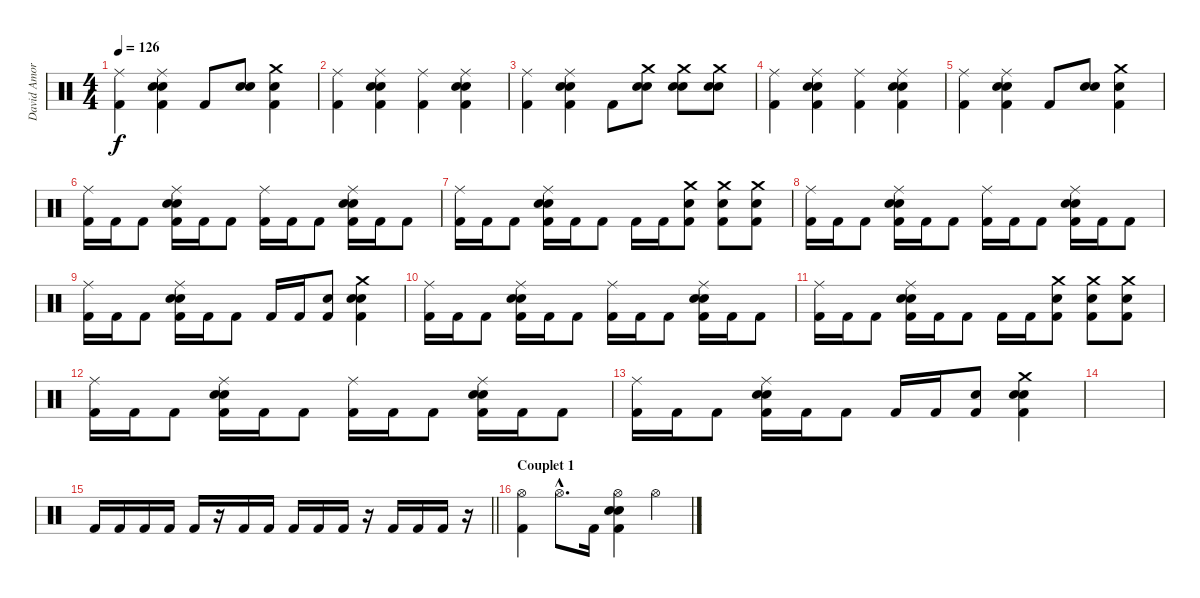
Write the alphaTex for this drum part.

\track ("David Amore" "David Amor") {instrument percussion}
\staff {score}
\articulation defaults
\ts (4 4)
\tempo 126
\clef neutral
\ks c
("Ride (middle)" "Kick (hit) 2").4{dy f} ("Ride (middle)" "Snare (hit) 2" "Electric Snare (hit)" "Kick (hit) 2").4 "Kick (hit) 2".8 ("Snare (hit) 2" "Electric Snare (hit)").8 ("Crash medium (hit)" "Electric Snare (hit)" "Kick (hit) 2").4 |
("Ride (middle)" "Kick (hit) 2").4 ("Ride (middle)" "Electric Snare (hit)" "Snare (hit) 2" "Kick (hit) 2").4 ("Ride (middle)" "Kick (hit) 2").4 ("Ride (middle)" "Snare (hit) 2" "Electric Snare (hit)" "Kick (hit) 2").4 |
("Ride (middle)" "Kick (hit) 2").4 ("Ride (middle)" "Snare (hit) 2" "Electric Snare (hit)" "Kick (hit) 2").4 "Kick (hit) 2".8 ("Crash medium (hit)" "Snare (hit) 2" "Electric Snare (hit)").8 ("Crash medium (hit)" "Snare (hit) 2" "Electric Snare (hit)").8 ("Crash medium (hit)" "Snare (hit) 2" "Electric Snare (hit)").8 |
("Ride (middle)" "Kick (hit) 2").4 ("Ride (middle)" "Electric Snare (hit)" "Snare (hit) 2" "Kick (hit) 2").4 ("Ride (middle)" "Kick (hit) 2").4 ("Ride (middle)" "Snare (hit) 2" "Electric Snare (hit)" "Kick (hit) 2").4 |
("Ride (middle)" "Kick (hit) 2").4 ("Ride (middle)" "Snare (hit) 2" "Electric Snare (hit)" "Kick (hit) 2").4 "Kick (hit) 2".8 ("Snare (hit) 2" "Electric Snare (hit)").8 ("Crash medium (hit)" "Electric Snare (hit)" "Kick (hit) 2").4 |
("Ride (middle)" "Kick (hit) 2").16 "Kick (hit) 2".16 "Kick (hit) 2".8 ("Ride (middle)" "Snare (hit) 2" "Electric Snare (hit)" "Kick (hit) 2").16 "Kick (hit) 2".16 "Kick (hit) 2".8 ("Ride (middle)" "Kick (hit) 2").16 "Kick (hit) 2".16 "Kick (hit) 2".8 ("Ride (middle)" "Snare (hit) 2" "Electric Snare (hit)" "Kick (hit) 2").16 "Kick (hit) 2".16 "Kick (hit) 2".8 |
("Ride (middle)" "Kick (hit) 2").16 "Kick (hit) 2".16 "Kick (hit) 2".8 ("Electric Snare (hit)" "Snare (hit) 2" "Ride (middle)" "Kick (hit) 2").16 "Kick (hit) 2".16 "Kick (hit) 2".8 "Kick (hit) 2".16 "Kick (hit) 2".16 ("Crash medium (hit)" "Snare (hit) 2" "Kick (hit) 2").8 ("Crash medium (hit)" "Snare (hit) 2" "Kick (hit) 2").8 ("Crash medium (hit)" "Snare (hit) 2" "Kick (hit) 2").8 |
("Ride (middle)" "Kick (hit) 2").16 "Kick (hit) 2".16 "Kick (hit) 2".8 ("Ride (middle)" "Snare (hit) 2" "Electric Snare (hit)" "Kick (hit) 2").16 "Kick (hit) 2".16 "Kick (hit) 2".8 ("Ride (middle)" "Kick (hit) 2").16 "Kick (hit) 2".16 "Kick (hit) 2".8 ("Ride (middle)" "Snare (hit) 2" "Electric Snare (hit)" "Kick (hit) 2").16 "Kick (hit) 2".16 "Kick (hit) 2".8 |
("Ride (middle)" "Kick (hit) 2").16 "Kick (hit) 2".16 "Kick (hit) 2".8 ("Electric Snare (hit)" "Snare (hit) 2" "Ride (middle)" "Kick (hit) 2").16 "Kick (hit) 2".16 "Kick (hit) 2".8 "Kick (hit) 2".16 "Kick (hit) 2".16 ("Snare (hit) 2" "Kick (hit) 2").8 ("Crash medium (hit)" "Electric Snare (hit)" "Snare (hit) 2" "Kick (hit) 2").4 |
("Ride (middle)" "Kick (hit) 2").16 "Kick (hit) 2".16 "Kick (hit) 2".8 ("Ride (middle)" "Snare (hit) 2" "Electric Snare (hit)" "Kick (hit) 2").16 "Kick (hit) 2".16 "Kick (hit) 2".8 ("Ride (middle)" "Kick (hit) 2").16 "Kick (hit) 2".16 "Kick (hit) 2".8 ("Ride (middle)" "Snare (hit) 2" "Electric Snare (hit)" "Kick (hit) 2").16 "Kick (hit) 2".16 "Kick (hit) 2".8 |
("Ride (middle)" "Kick (hit) 2").16 "Kick (hit) 2".16 "Kick (hit) 2".8 ("Electric Snare (hit)" "Snare (hit) 2" "Ride (middle)" "Kick (hit) 2").16 "Kick (hit) 2".16 "Kick (hit) 2".8 "Kick (hit) 2".16 "Kick (hit) 2".16 ("Crash medium (hit)" "Snare (hit) 2" "Kick (hit) 2").8 ("Crash medium (hit)" "Snare (hit) 2" "Kick (hit) 2").8 ("Crash medium (hit)" "Snare (hit) 2" "Kick (hit) 2").8 |
("Ride (middle)" "Kick (hit) 2").16 "Kick (hit) 2".16 "Kick (hit) 2".8 ("Ride (middle)" "Snare (hit) 2" "Electric Snare (hit)" "Kick (hit) 2").16 "Kick (hit) 2".16 "Kick (hit) 2".8 ("Ride (middle)" "Kick (hit) 2").16 "Kick (hit) 2".16 "Kick (hit) 2".8 ("Ride (middle)" "Snare (hit) 2" "Electric Snare (hit)" "Kick (hit) 2").16 "Kick (hit) 2".16 "Kick (hit) 2".8 |
("Ride (middle)" "Kick (hit) 2").16 "Kick (hit) 2".16 "Kick (hit) 2".8 ("Electric Snare (hit)" "Snare (hit) 2" "Ride (middle)" "Kick (hit) 2").16 "Kick (hit) 2".16 "Kick (hit) 2".8 "Kick (hit) 2".16 "Kick (hit) 2".16 ("Snare (hit) 2" "Kick (hit) 2").8 ("Crash medium (hit)" "Electric Snare (hit)" "Snare (hit) 2" "Kick (hit) 2").4 |
|
\barLineRight lightlight "Kick (hit) 2".16 "Kick (hit) 2".16 "Kick (hit) 2".16 "Kick (hit) 2".16 "Kick (hit) 2".16
r.16 "Kick (hit) 2".16 "Kick (hit) 2".16 "Kick (hit) 2".16 "Kick (hit) 2".16 "Kick (hit) 2".16 r.16 "Kick (hit) 2".16 "Kick (hit) 2".16 "Kick (hit) 2".16 r.16 |
\section ("" "Couplet 1")
("Hi-Hat (open)" "Kick (hit) 2").4 "Hi-Hat (open)"{hac}.8{d} "Kick (hit) 2".16 ("Hi-Hat (open)" "Snare (hit) 2" "Electric Snare (hit)" "Kick (hit) 2").4 "Hi-Hat (open)".4
